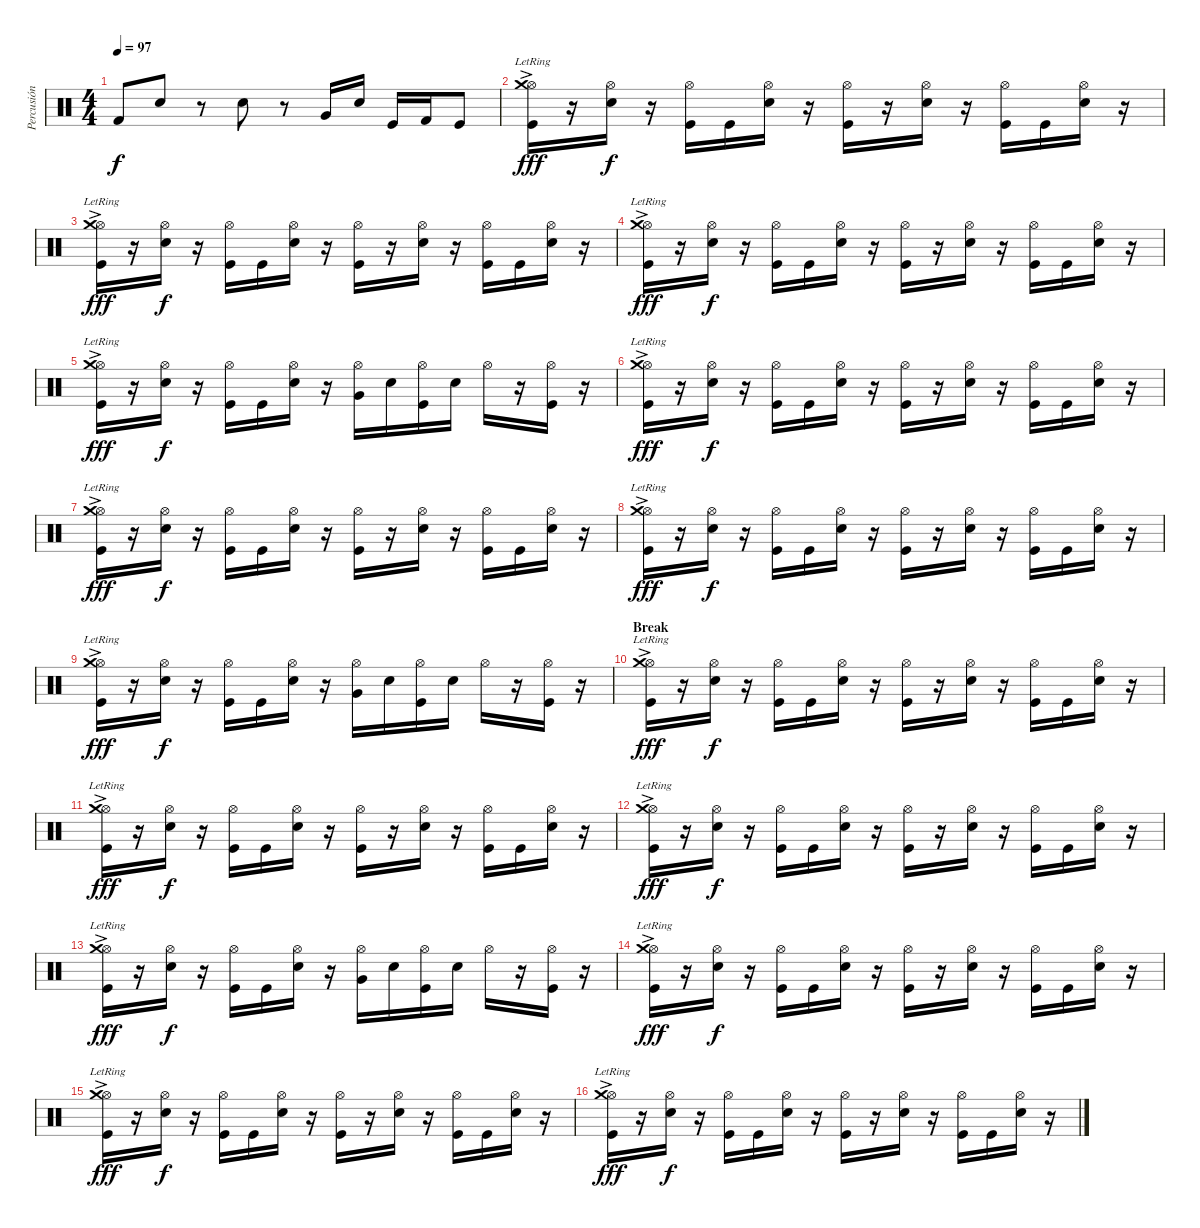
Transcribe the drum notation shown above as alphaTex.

\track ("Percusión" "Percusión") {instrument percussion}
\staff {score}
\articulation defaults
\ts (4 4)
\tempo 97
\clef neutral
\ks c "Kick (hit) 2".8{dy f} "Snare (hit) 2".8
r.8 "Snare (hit) 2".8 r.8 "Very Low Tom (hit)".16 "Electric Snare (hit)".16 "Kick (hit)".16 "Kick (hit) 2".16 "Kick (hit)".8 |
("Hi-Hat (open)" "Crash medium (hit)"{ac lr} "Kick (hit)").16{dy fff} r.16 ("Hi-Hat (open)" "Snare (hit) 2").16{dy f} r.16 ("Hi-Hat (open)" "Kick (hit)").16 "Kick (hit)".16 ("Hi-Hat (open)" "Snare (hit) 2").16 r.16 ("Hi-Hat (open)" "Kick (hit)").16 r.16 ("Hi-Hat (open)" "Snare (hit) 2").16 r.16 ("Hi-Hat (open)" "Kick (hit)").16 "Kick (hit)".16 ("Hi-Hat (open)" "Snare (hit) 2").16 r.16 |
("Hi-Hat (open)" "Crash medium (hit)"{ac lr} "Kick (hit)").16{dy fff} r.16 ("Hi-Hat (open)" "Snare (hit) 2").16{dy f} r.16 ("Hi-Hat (open)" "Kick (hit)").16 "Kick (hit)".16 ("Hi-Hat (open)" "Snare (hit) 2").16 r.16 ("Hi-Hat (open)" "Kick (hit)").16 r.16 ("Hi-Hat (open)" "Snare (hit) 2").16 r.16 ("Hi-Hat (open)" "Kick (hit)").16 "Kick (hit)".16 ("Hi-Hat (open)" "Snare (hit) 2").16 r.16 |
("Hi-Hat (open)" "Crash medium (hit)"{ac lr} "Kick (hit)").16{dy fff} r.16 ("Hi-Hat (open)" "Snare (hit) 2").16{dy f} r.16 ("Hi-Hat (open)" "Kick (hit)").16 "Kick (hit)".16 ("Hi-Hat (open)" "Snare (hit) 2").16 r.16 ("Hi-Hat (open)" "Kick (hit)").16 r.16 ("Hi-Hat (open)" "Snare (hit) 2").16 r.16 ("Hi-Hat (open)" "Kick (hit)").16 "Kick (hit)".16 ("Hi-Hat (open)" "Snare (hit) 2").16 r.16 |
("Hi-Hat (open)" "Crash medium (hit)"{ac lr} "Kick (hit)").16{dy fff} r.16 ("Hi-Hat (open)" "Snare (hit) 2").16{dy f} r.16 ("Hi-Hat (open)" "Kick (hit)").16 "Kick (hit)".16 ("Hi-Hat (open)" "Electric Snare (hit)").16 r.16 ("Hi-Hat (open)" "Very Low Tom (hit)").16 "Electric Snare (hit)".16 ("Hi-Hat (open)" "Kick (hit)").16 "Electric Snare (hit)".16 "Hi-Hat (open)".16 r.16 ("Hi-Hat (open)" "Kick (hit)").16 r.16 |
("Hi-Hat (open)" "Crash medium (hit)"{ac lr} "Kick (hit)").16{dy fff} r.16 ("Hi-Hat (open)" "Snare (hit) 2").16{dy f} r.16 ("Hi-Hat (open)" "Kick (hit)").16 "Kick (hit)".16 ("Hi-Hat (open)" "Snare (hit) 2").16 r.16 ("Hi-Hat (open)" "Kick (hit)").16 r.16 ("Hi-Hat (open)" "Snare (hit) 2").16 r.16 ("Hi-Hat (open)" "Kick (hit)").16 "Kick (hit)".16 ("Hi-Hat (open)" "Snare (hit) 2").16 r.16 |
("Hi-Hat (open)" "Crash medium (hit)"{ac lr} "Kick (hit)").16{dy fff} r.16 ("Hi-Hat (open)" "Snare (hit) 2").16{dy f} r.16 ("Hi-Hat (open)" "Kick (hit)").16 "Kick (hit)".16 ("Hi-Hat (open)" "Snare (hit) 2").16 r.16 ("Hi-Hat (open)" "Kick (hit)").16 r.16 ("Hi-Hat (open)" "Snare (hit) 2").16 r.16 ("Hi-Hat (open)" "Kick (hit)").16 "Kick (hit)".16 ("Hi-Hat (open)" "Snare (hit) 2").16 r.16 |
("Hi-Hat (open)" "Crash medium (hit)"{ac lr} "Kick (hit)").16{dy fff} r.16 ("Hi-Hat (open)" "Snare (hit) 2").16{dy f} r.16 ("Hi-Hat (open)" "Kick (hit)").16 "Kick (hit)".16 ("Hi-Hat (open)" "Snare (hit) 2").16 r.16 ("Hi-Hat (open)" "Kick (hit)").16 r.16 ("Hi-Hat (open)" "Snare (hit) 2").16 r.16 ("Hi-Hat (open)" "Kick (hit)").16 "Kick (hit)".16 ("Hi-Hat (open)" "Snare (hit) 2").16 r.16 |
("Hi-Hat (open)" "Crash medium (hit)"{ac lr} "Kick (hit)").16{dy fff} r.16 ("Hi-Hat (open)" "Snare (hit) 2").16{dy f} r.16 ("Hi-Hat (open)" "Kick (hit)").16 "Kick (hit)".16 ("Hi-Hat (open)" "Electric Snare (hit)").16 r.16 ("Hi-Hat (open)" "Very Low Tom (hit)").16 "Electric Snare (hit)".16 ("Hi-Hat (open)" "Kick (hit)").16 "Electric Snare (hit)".16 "Hi-Hat (open)".16 r.16 ("Hi-Hat (open)" "Kick (hit)").16 r.16 |
\section ("" "Break")
("Hi-Hat (open)" "Crash medium (hit)"{ac lr} "Kick (hit)").16{dy fff} r.16 ("Hi-Hat (open)" "Snare (hit) 2").16{dy f} r.16 ("Hi-Hat (open)" "Kick (hit)").16 "Kick (hit)".16 ("Hi-Hat (open)" "Snare (hit) 2").16 r.16 ("Hi-Hat (open)" "Kick (hit)").16 r.16 ("Hi-Hat (open)" "Snare (hit) 2").16 r.16 ("Hi-Hat (open)" "Kick (hit)").16 "Kick (hit)".16 ("Hi-Hat (open)" "Snare (hit) 2").16 r.16 |
("Hi-Hat (open)" "Crash medium (hit)"{ac lr} "Kick (hit)").16{dy fff} r.16 ("Hi-Hat (open)" "Snare (hit) 2").16{dy f} r.16 ("Hi-Hat (open)" "Kick (hit)").16 "Kick (hit)".16 ("Hi-Hat (open)" "Snare (hit) 2").16 r.16 ("Hi-Hat (open)" "Kick (hit)").16 r.16 ("Hi-Hat (open)" "Snare (hit) 2").16 r.16 ("Hi-Hat (open)" "Kick (hit)").16 "Kick (hit)".16 ("Hi-Hat (open)" "Snare (hit) 2").16 r.16 |
("Hi-Hat (open)" "Crash medium (hit)"{ac lr} "Kick (hit)").16{dy fff} r.16 ("Hi-Hat (open)" "Snare (hit) 2").16{dy f} r.16 ("Hi-Hat (open)" "Kick (hit)").16 "Kick (hit)".16 ("Hi-Hat (open)" "Snare (hit) 2").16 r.16 ("Hi-Hat (open)" "Kick (hit)").16 r.16 ("Hi-Hat (open)" "Snare (hit) 2").16 r.16 ("Hi-Hat (open)" "Kick (hit)").16 "Kick (hit)".16 ("Hi-Hat (open)" "Snare (hit) 2").16 r.16 |
("Hi-Hat (open)" "Crash medium (hit)"{ac lr} "Kick (hit)").16{dy fff} r.16 ("Hi-Hat (open)" "Snare (hit) 2").16{dy f} r.16 ("Hi-Hat (open)" "Kick (hit)").16 "Kick (hit)".16 ("Hi-Hat (open)" "Electric Snare (hit)").16 r.16 ("Hi-Hat (open)" "Very Low Tom (hit)").16 "Electric Snare (hit)".16 ("Hi-Hat (open)" "Kick (hit)").16 "Electric Snare (hit)".16 "Hi-Hat (open)".16 r.16 ("Hi-Hat (open)" "Kick (hit)").16 r.16 |
("Hi-Hat (open)" "Crash medium (hit)"{ac lr} "Kick (hit)").16{dy fff} r.16 ("Hi-Hat (open)" "Snare (hit) 2").16{dy f} r.16 ("Hi-Hat (open)" "Kick (hit)").16 "Kick (hit)".16 ("Hi-Hat (open)" "Snare (hit) 2").16 r.16 ("Hi-Hat (open)" "Kick (hit)").16 r.16 ("Hi-Hat (open)" "Snare (hit) 2").16 r.16 ("Hi-Hat (open)" "Kick (hit)").16 "Kick (hit)".16 ("Hi-Hat (open)" "Snare (hit) 2").16 r.16 |
("Hi-Hat (open)" "Crash medium (hit)"{ac lr} "Kick (hit)").16{dy fff} r.16 ("Hi-Hat (open)" "Snare (hit) 2").16{dy f} r.16 ("Hi-Hat (open)" "Kick (hit)").16 "Kick (hit)".16 ("Hi-Hat (open)" "Snare (hit) 2").16 r.16 ("Hi-Hat (open)" "Kick (hit)").16 r.16 ("Hi-Hat (open)" "Snare (hit) 2").16 r.16 ("Hi-Hat (open)" "Kick (hit)").16 "Kick (hit)".16 ("Hi-Hat (open)" "Snare (hit) 2").16 r.16 |
("Hi-Hat (open)" "Crash medium (hit)"{ac lr} "Kick (hit)").16{dy fff} r.16 ("Hi-Hat (open)" "Snare (hit) 2").16{dy f} r.16 ("Hi-Hat (open)" "Kick (hit)").16 "Kick (hit)".16 ("Hi-Hat (open)" "Snare (hit) 2").16 r.16 ("Hi-Hat (open)" "Kick (hit)").16 r.16 ("Hi-Hat (open)" "Snare (hit) 2").16 r.16 ("Hi-Hat (open)" "Kick (hit)").16 "Kick (hit)".16 ("Hi-Hat (open)" "Snare (hit) 2").16 r.16
